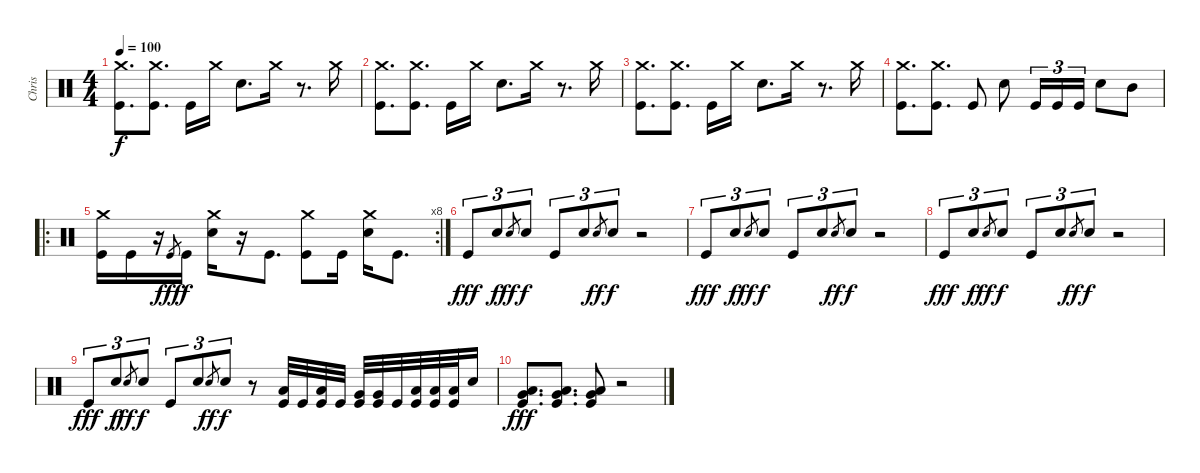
\track ("Chris" "Chris") {instrument percussion}
\staff {score}
\articulation defaults
\ts (4 4)
\tempo 100
\clef neutral
\ks c
("Crash medium (hit)" "Kick (hit)").8{d dy f} ("Crash medium (hit)" "Kick (hit)").8{d} "Kick (hit)".16 "Crash medium (hit)".16 "Snare (hit) 2".8{d} "Crash medium (hit)".16 r.8{d} "Crash medium (hit)".16 |
("Crash medium (hit)" "Kick (hit)").8{d} ("Crash medium (hit)" "Kick (hit)").8{d} "Kick (hit)".16 "Crash medium (hit)".16 "Snare (hit) 2".8{d} "Crash medium (hit)".16 r.8{d} "Crash medium (hit)".16 |
("Crash medium (hit)" "Kick (hit)").8{d} ("Crash medium (hit)" "Kick (hit)").8{d} "Kick (hit)".16 "Crash medium (hit)".16 "Snare (hit) 2".8{d} "Crash medium (hit)".16 r.8{d} "Crash medium (hit)".16 |
("Crash medium (hit)" "Kick (hit)").8{d} ("Crash medium (hit)" "Kick (hit)").8{d} "Kick (hit)".8 "Snare (hit) 2".8 "Kick (hit)".16{tu (3 2)} "Kick (hit)".16{tu (3 2)} "Kick (hit)".16{tu (3 2)} "Snare (hit) 2".8 "Mid Tom (hit)".8 |
\ro
\rc 8
("Crash medium (hit)" "Kick (hit)").16 "Kick (hit)".16 r.16 "Kick (hit)".8{gr dy fff} "Kick (hit)".16{dy f} ("Crash medium (hit)" "Snare (hit) 2").16 r.16 "Kick (hit)".8{d} ("Crash medium (hit)" "Kick (hit)").8 "Kick (hit)".16 ("Crash medium (hit)" "Snare (hit) 2").16 "Kick (hit)".8{d} |
"Kick (hit)".8{tu (3 2) dy fff} "Snare (hit) 2".8{tu (3 2) dy f} "Snare (hit) 2".8{gr dy ff} "Snare (hit) 2".8{tu (3 2) dy f} "Kick (hit)".8{tu (3 2)} "Snare (hit) 2".8{tu (3 2)} "Snare (hit) 2".8{gr dy ff} "Snare (hit) 2".8{tu (3 2) dy f} r.2 |
"Kick (hit)".8{tu (3 2) dy fff} "Snare (hit) 2".8{tu (3 2) dy f} "Snare (hit) 2".8{gr dy ff} "Snare (hit) 2".8{tu (3 2) dy f} "Kick (hit)".8{tu (3 2)} "Snare (hit) 2".8{tu (3 2)} "Snare (hit) 2".8{gr dy ff} "Snare (hit) 2".8{tu (3 2) dy f} r.2 |
"Kick (hit)".8{tu (3 2) dy fff} "Snare (hit) 2".8{tu (3 2) dy f} "Snare (hit) 2".8{gr dy ff} "Snare (hit) 2".8{tu (3 2) dy f} "Kick (hit)".8{tu (3 2)} "Snare (hit) 2".8{tu (3 2)} "Snare (hit) 2".8{gr dy ff} "Snare (hit) 2".8{tu (3 2) dy f} r.2 |
"Kick (hit)".8{tu (3 2) dy fff} "Snare (hit) 2".8{tu (3 2) dy f} "Snare (hit) 2".8{gr dy ff} "Snare (hit) 2".8{tu (3 2) dy f} "Kick (hit)".8{tu (3 2)} "Snare (hit) 2".8{tu (3 2)} "Snare (hit) 2".8{gr dy ff} "Snare (hit) 2".8{tu (3 2) dy f} r.8 ("Low Tom (hit)" "Kick (hit)").32 "Kick (hit)".32 ("Low Tom (hit)" "Kick (hit)").32 "Kick (hit)".32 ("Very Low Tom (hit)" "Kick (hit)").32 ("Very Low Tom (hit)" "Kick (hit)").32 "Kick (hit)".32 ("Low Floor Tom (hit)" "Kick (hit)").32 ("Low Floor Tom (hit)" "Kick (hit)").32 ("Low Floor Tom (hit)" "Kick (hit)").32 "Snare (hit) 2".16 |
("Low Floor Tom (hit)" "Very Low Tom (hit)" "Kick (hit)").8{d dy fff} ("Low Floor Tom (hit)" "Very Low Tom (hit)" "Kick (hit)").8{d} ("Low Floor Tom (hit)" "Very Low Tom (hit)" "Kick (hit)").8 r.2
